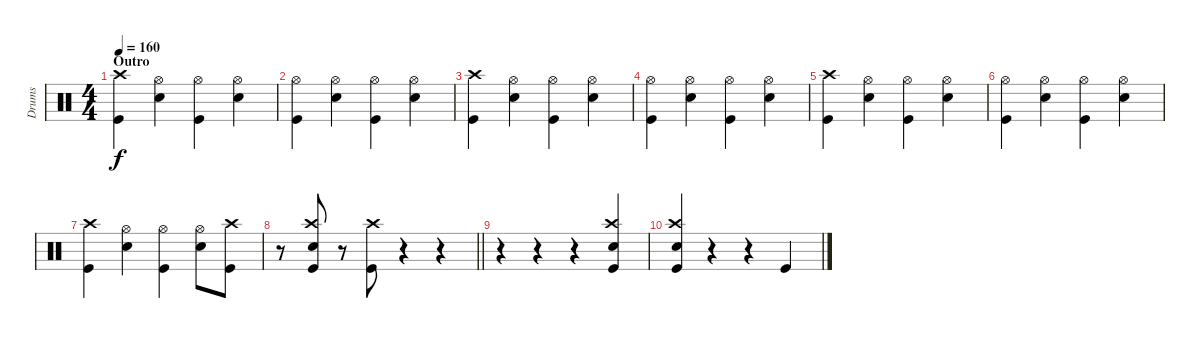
\track ("Drums" "Drums") {instrument percussion}
\staff {score}
\articulation defaults
\ts (4 4)
\section ("" "Outro")
\tempo 160
\clef neutral
\ks c
("Kick (hit)" "Crash high (hit)").4{dy f} ("Snare (hit) 2" "Hi-Hat (open)").4 ("Kick (hit)" "Hi-Hat (open)").4 ("Snare (hit) 2" "Hi-Hat (open)").4 |
("Kick (hit)" "Hi-Hat (open)").4 ("Snare (hit) 2" "Hi-Hat (open)").4 ("Kick (hit)" "Hi-Hat (open)").4 ("Snare (hit) 2" "Hi-Hat (open)").4 |
("Kick (hit)" "Crash high (hit)").4 ("Snare (hit) 2" "Hi-Hat (open)").4 ("Kick (hit)" "Hi-Hat (open)").4 ("Snare (hit) 2" "Hi-Hat (open)").4 |
("Kick (hit)" "Hi-Hat (open)").4 ("Snare (hit) 2" "Hi-Hat (open)").4 ("Kick (hit)" "Hi-Hat (open)").4 ("Snare (hit) 2" "Hi-Hat (open)").4 |
("Kick (hit)" "Crash high (hit)").4 ("Snare (hit) 2" "Hi-Hat (open)").4 ("Kick (hit)" "Hi-Hat (open)").4 ("Snare (hit) 2" "Hi-Hat (open)").4 |
("Kick (hit)" "Hi-Hat (open)").4 ("Snare (hit) 2" "Hi-Hat (open)").4 ("Kick (hit)" "Hi-Hat (open)").4 ("Snare (hit) 2" "Hi-Hat (open)").4 |
("Kick (hit)" "Crash high (hit)").4 ("Snare (hit) 2" "Hi-Hat (open)").4 ("Kick (hit)" "Hi-Hat (open)").4 ("Snare (hit) 2" "Hi-Hat (open)").8 ("Kick (hit)" "Crash high (hit)").8 |
\barLineRight lightlight
r.8 ("Kick (hit)" "Snare (hit) 2" "Crash high (hit)").8 r.8 ("Kick (hit)" "Crash high (hit)").8 r.4 r.4 |
r.4 r.4 r.4 ("Kick (hit)" "Snare (hit) 2" "Crash high (hit)").4 |
("Kick (hit)" "Snare (hit) 2" "Crash high (hit)").4 r.4 r.4 "Kick (hit)".4
